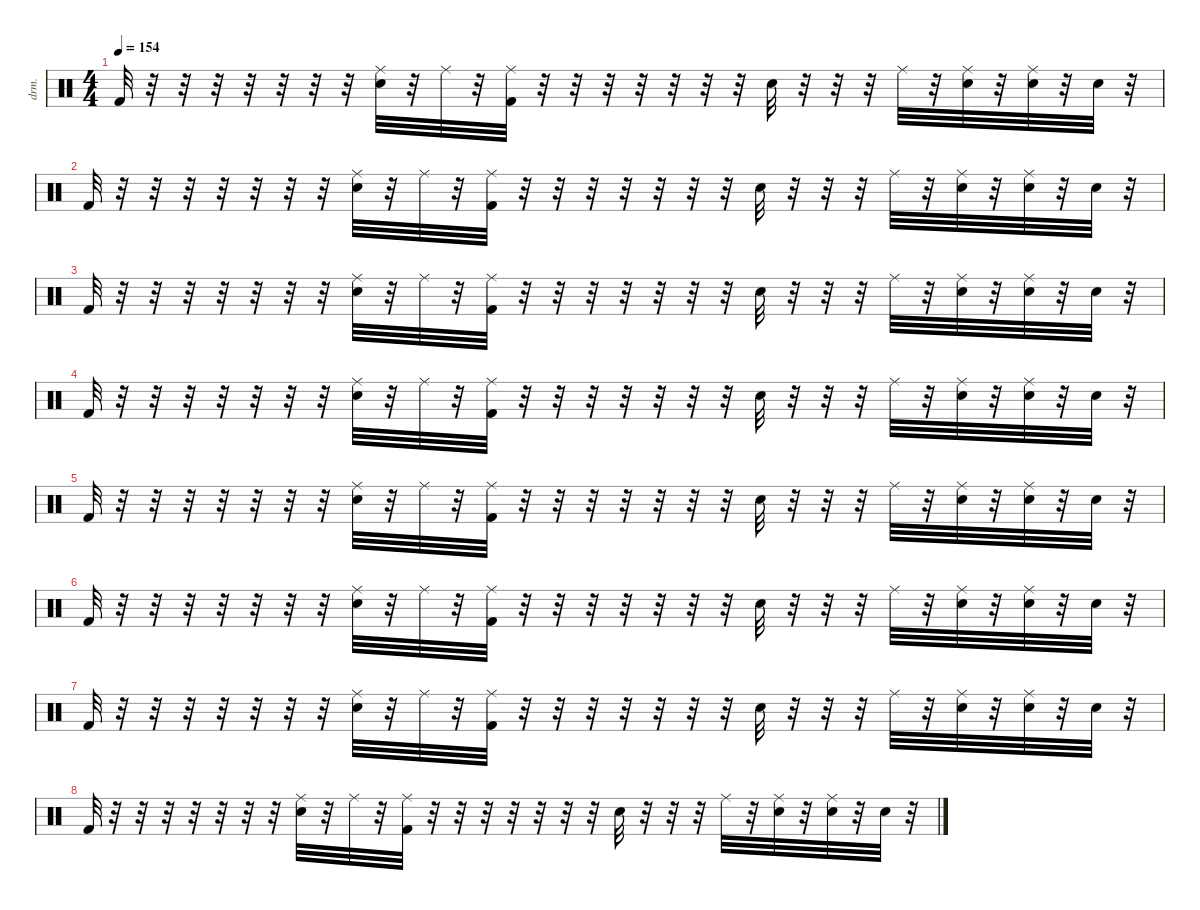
\defaultSystemsLayout 4
\hideDynamics
\bracketExtendMode nobrackets
\otherSystemsTrackNameOrientation horizontal
\track ("Percussion" "drm.") {instrument percussion}
\staff {score}
\articulation defaults
\ts (4 4)
\tempo 154
\clef neutral
\ks c "Kick (hit) 2".32{dy f beam Up}
r.32{beam Up} r.32{beam Up} r.32{beam Up} r.32{beam Up} r.32{beam Up} r.32{beam Up} r.32{beam Up} ("Snare (hit) 2" "Ride (middle)").32{beam Down} r.32{beam Down} "Ride (middle)".32{beam Down} r.32{beam Down} ("Kick (hit) 2" "Ride (middle)").32{beam Down} r.32{beam Down} r.32{beam Down} r.32{beam Down} r.32{beam Down} r.32{beam Down} r.32{beam Down} r.32{beam Down} "Snare (hit) 2".32{beam Down} r.32{beam Down} r.32{beam Down} r.32{beam Down} "Ride (middle)".32{beam Down} r.32{beam Down} ("Snare (hit) 2" "Ride (middle)").32{dy p beam Down} r.32{beam Down} ("Snare (hit) 2" "Ride (middle)").32{dy mf beam Down} r.32{beam Down} "Snare (hit) 2".32{dy f beam Down} r.32{beam Down} |
"Kick (hit) 2".32{beam Up} r.32{beam Up} r.32{beam Up} r.32{beam Up} r.32{beam Up} r.32{beam Up} r.32{beam Up} r.32{beam Up} ("Snare (hit) 2" "Ride (middle)").32{beam Down} r.32{beam Down} "Ride (middle)".32{beam Down} r.32{beam Down} ("Kick (hit) 2" "Ride (middle)").32{beam Down} r.32{beam Down} r.32{beam Down} r.32{beam Down} r.32{beam Down} r.32{beam Down} r.32{beam Down} r.32{beam Down} "Snare (hit) 2".32{beam Down} r.32{beam Down} r.32{beam Down} r.32{beam Down} "Ride (middle)".32{beam Down} r.32{beam Down} ("Snare (hit) 2" "Ride (middle)").32{dy p beam Down} r.32{beam Down} ("Snare (hit) 2" "Ride (middle)").32{dy mf beam Down} r.32{beam Down} "Snare (hit) 2".32{dy f beam Down} r.32{beam Down} |
"Kick (hit) 2".32{beam Up} r.32{beam Up} r.32{beam Up} r.32{beam Up} r.32{beam Up} r.32{beam Up} r.32{beam Up} r.32{beam Up} ("Snare (hit) 2" "Ride (middle)").32{beam Down} r.32{beam Down} "Ride (middle)".32{beam Down} r.32{beam Down} ("Kick (hit) 2" "Ride (middle)").32{beam Down} r.32{beam Down} r.32{beam Down} r.32{beam Down} r.32{beam Down} r.32{beam Down} r.32{beam Down} r.32{beam Down} "Snare (hit) 2".32{beam Down} r.32{beam Down} r.32{beam Down} r.32{beam Down} "Ride (middle)".32{beam Down} r.32{beam Down} ("Snare (hit) 2" "Ride (middle)").32{dy p beam Down} r.32{beam Down} ("Snare (hit) 2" "Ride (middle)").32{dy mf beam Down} r.32{beam Down} "Snare (hit) 2".32{dy f beam Down} r.32{beam Down} |
"Kick (hit) 2".32{beam Up} r.32{beam Up} r.32{beam Up} r.32{beam Up} r.32{beam Up} r.32{beam Up} r.32{beam Up} r.32{beam Up} ("Snare (hit) 2" "Ride (middle)").32{beam Down} r.32{beam Down} "Ride (middle)".32{beam Down} r.32{beam Down} ("Kick (hit) 2" "Ride (middle)").32{beam Down} r.32{beam Down} r.32{beam Down} r.32{beam Down} r.32{beam Down} r.32{beam Down} r.32{beam Down} r.32{beam Down} "Snare (hit) 2".32{beam Down} r.32{beam Down} r.32{beam Down} r.32{beam Down} "Ride (middle)".32{beam Down} r.32{beam Down} ("Snare (hit) 2" "Ride (middle)").32{dy p beam Down} r.32{beam Down} ("Snare (hit) 2" "Ride (middle)").32{dy mf beam Down} r.32{beam Down} "Snare (hit) 2".32{dy f beam Down} r.32{beam Down} |
"Kick (hit) 2".32{beam Up} r.32{beam Up} r.32{beam Up} r.32{beam Up} r.32{beam Up} r.32{beam Up} r.32{beam Up} r.32{beam Up} ("Snare (hit) 2" "Ride (middle)").32{beam Down} r.32{beam Down} "Ride (middle)".32{beam Down} r.32{beam Down} ("Kick (hit) 2" "Ride (middle)").32{beam Down} r.32{beam Down} r.32{beam Down} r.32{beam Down} r.32{beam Down} r.32{beam Down} r.32{beam Down} r.32{beam Down} "Snare (hit) 2".32{beam Down} r.32{beam Down} r.32{beam Down} r.32{beam Down} "Ride (middle)".32{beam Down} r.32{beam Down} ("Snare (hit) 2" "Ride (middle)").32{dy p beam Down} r.32{beam Down} ("Snare (hit) 2" "Ride (middle)").32{dy mf beam Down} r.32{beam Down} "Snare (hit) 2".32{dy f beam Down} r.32{beam Down} |
"Kick (hit) 2".32{beam Up} r.32{beam Up} r.32{beam Up} r.32{beam Up} r.32{beam Up} r.32{beam Up} r.32{beam Up} r.32{beam Up} ("Snare (hit) 2" "Ride (middle)").32{beam Down} r.32{beam Down} "Ride (middle)".32{beam Down} r.32{beam Down} ("Kick (hit) 2" "Ride (middle)").32{beam Down} r.32{beam Down} r.32{beam Down} r.32{beam Down} r.32{beam Down} r.32{beam Down} r.32{beam Down} r.32{beam Down} "Snare (hit) 2".32{beam Down} r.32{beam Down} r.32{beam Down} r.32{beam Down} "Ride (middle)".32{beam Down} r.32{beam Down} ("Snare (hit) 2" "Ride (middle)").32{dy p beam Down} r.32{beam Down} ("Snare (hit) 2" "Ride (middle)").32{dy mf beam Down} r.32{beam Down} "Snare (hit) 2".32{dy f beam Down} r.32{beam Down} |
"Kick (hit) 2".32{beam Up} r.32{beam Up} r.32{beam Up} r.32{beam Up} r.32{beam Up} r.32{beam Up} r.32{beam Up} r.32{beam Up} ("Snare (hit) 2" "Ride (middle)").32{beam Down} r.32{beam Down} "Ride (middle)".32{beam Down} r.32{beam Down} ("Kick (hit) 2" "Ride (middle)").32{beam Down} r.32{beam Down} r.32{beam Down} r.32{beam Down} r.32{beam Down} r.32{beam Down} r.32{beam Down} r.32{beam Down} "Snare (hit) 2".32{beam Down} r.32{beam Down} r.32{beam Down} r.32{beam Down} "Ride (middle)".32{beam Down} r.32{beam Down} ("Snare (hit) 2" "Ride (middle)").32{dy p beam Down} r.32{beam Down} ("Snare (hit) 2" "Ride (middle)").32{dy mf beam Down} r.32{beam Down} "Snare (hit) 2".32{dy f beam Down} r.32{beam Down} |
"Kick (hit) 2".32{beam Up} r.32{beam Up} r.32{beam Up} r.32{beam Up} r.32{beam Up} r.32{beam Up} r.32{beam Up} r.32{beam Up} ("Snare (hit) 2" "Ride (middle)").32{beam Down} r.32{beam Down} "Ride (middle)".32{beam Down} r.32{beam Down} ("Kick (hit) 2" "Ride (middle)").32{beam Down} r.32{beam Down} r.32{beam Down} r.32{beam Down} r.32{beam Down} r.32{beam Down} r.32{beam Down} r.32{beam Down} "Snare (hit) 2".32{beam Down} r.32{beam Down} r.32{beam Down} r.32{beam Down} "Ride (middle)".32{beam Down} r.32{beam Down} ("Snare (hit) 2" "Ride (middle)").32{dy p beam Down} r.32{beam Down} ("Snare (hit) 2" "Ride (middle)").32{dy mf beam Down} r.32{beam Down} "Snare (hit) 2".32{dy f beam Down} r.32{beam Down}
